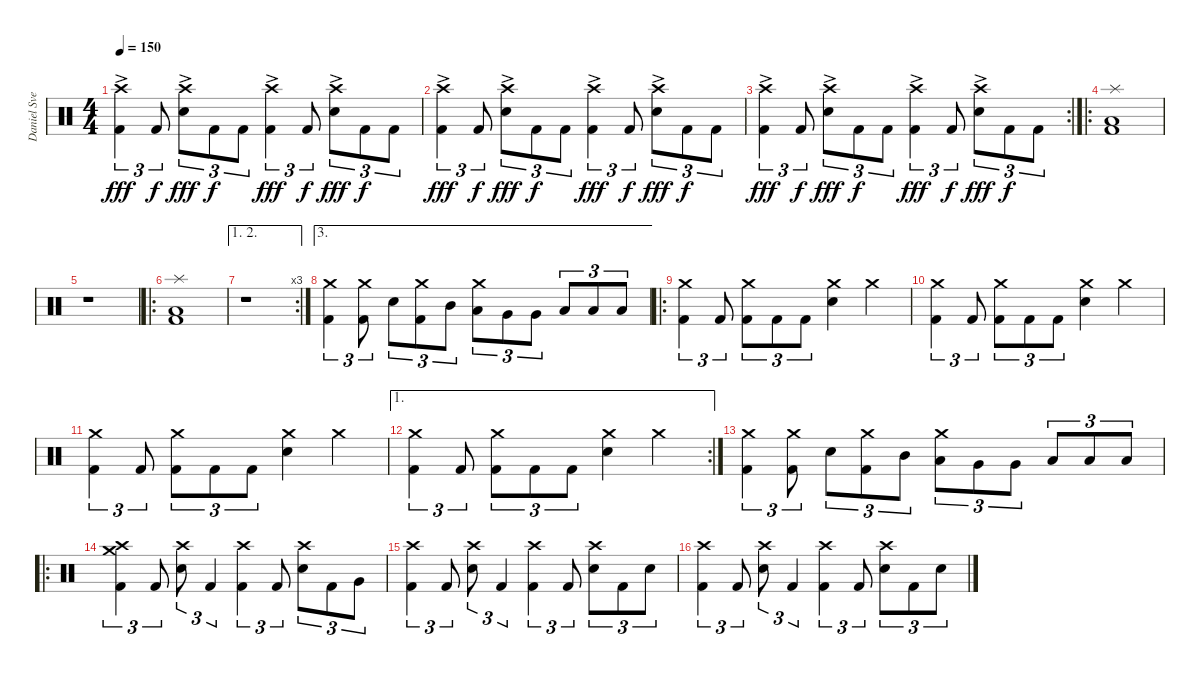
\track ("Daniel Svensson" "Daniel Sve") {instrument percussion}
\staff {score}
\articulation defaults
\ts (4 4)
\tempo 150
\clef neutral
\ks c
("Crash high (hit)"{ac} "Kick (hit) 2").4{tu (3 2) dy fff} "Kick (hit) 2".8{tu (3 2) dy f} ("Crash high (hit)"{ac} "Electric Snare (hit)").8{tu (3 2) dy fff} "Kick (hit) 2".8{tu (3 2) dy f} "Kick (hit) 2".8{tu (3 2)} ("Crash high (hit)"{ac} "Kick (hit) 2").4{tu (3 2) dy fff} "Kick (hit) 2".8{tu (3 2) dy f} ("Electric Snare (hit)" "Crash high (hit)"{ac}).8{tu (3 2) dy fff} "Kick (hit) 2".8{tu (3 2) dy f} "Kick (hit) 2".8{tu (3 2)} |
("Crash high (hit)"{ac} "Kick (hit) 2").4{tu (3 2) dy fff} "Kick (hit) 2".8{tu (3 2) dy f} ("Crash high (hit)"{ac} "Electric Snare (hit)").8{tu (3 2) dy fff} "Kick (hit) 2".8{tu (3 2) dy f} "Kick (hit) 2".8{tu (3 2)} ("Crash high (hit)"{ac} "Kick (hit) 2").4{tu (3 2) dy fff} "Kick (hit) 2".8{tu (3 2) dy f} ("Electric Snare (hit)" "Crash high (hit)"{ac}).8{tu (3 2) dy fff} "Kick (hit) 2".8{tu (3 2) dy f} "Kick (hit) 2".8{tu (3 2)} |
\rc 2
("Crash high (hit)"{ac} "Kick (hit) 2").4{tu (3 2) dy fff} "Kick (hit) 2".8{tu (3 2) dy f} ("Crash high (hit)"{ac} "Electric Snare (hit)").8{tu (3 2) dy fff} "Kick (hit) 2".8{tu (3 2) dy f} "Kick (hit) 2".8{tu (3 2)} ("Crash high (hit)"{ac} "Kick (hit) 2").4{tu (3 2) dy fff} "Kick (hit) 2".8{tu (3 2) dy f} ("Electric Snare (hit)" "Crash high (hit)"{ac}).8{tu (3 2) dy fff} "Kick (hit) 2".8{tu (3 2) dy f} "Kick (hit) 2".8{tu (3 2)} |
\ro
("Splash (hit)" "Kick (hit) 2" "Low Floor Tom (hit)").1 |
r.1 |
\ro
("Splash (hit)" "Kick (hit) 2" "Low Floor Tom (hit)").1 |
\ae (1 2)
\rc 3
r.1 |
\ae 3
("Crash medium (hit)" "Kick (hit) 2").4{tu (3 2)} ("Crash medium (hit)" "Kick (hit) 2").8{tu (3 2)} "Electric Snare (hit)".8{tu (3 2)} ("Crash medium (hit)" "Kick (hit) 2").8{tu (3 2)} "Mid Tom (hit)".8{tu (3 2)} ("Crash medium (hit)" "Low Tom (hit)").8{tu (3 2)} "Very Low Tom (hit)".8{tu (3 2)} "Very Low Tom (hit)".8{tu (3 2)} "Low Floor Tom (hit)".8{tu (3 2)} "Low Floor Tom (hit)".8{tu (3 2)} "Low Floor Tom (hit)".8{tu (3 2)} |
\ro
("Crash medium (hit)" "Kick (hit) 2").4{tu (3 2)} "Kick (hit) 2".8{tu (3 2)} ("Crash medium (hit)" "Kick (hit) 2").8{tu (3 2)} "Kick (hit) 2".8{tu (3 2)} "Kick (hit) 2".8{tu (3 2)} ("Crash medium (hit)" "Electric Snare (hit)").4 "Crash medium (hit)".4 |
("Crash medium (hit)" "Kick (hit) 2").4{tu (3 2)} "Kick (hit) 2".8{tu (3 2)} ("Crash medium (hit)" "Kick (hit) 2").8{tu (3 2)} "Kick (hit) 2".8{tu (3 2)} "Kick (hit) 2".8{tu (3 2)} ("Crash medium (hit)" "Electric Snare (hit)").4 "Crash medium (hit)".4 |
("Crash medium (hit)" "Kick (hit) 2").4{tu (3 2)} "Kick (hit) 2".8{tu (3 2)} ("Crash medium (hit)" "Kick (hit) 2").8{tu (3 2)} "Kick (hit) 2".8{tu (3 2)} "Kick (hit) 2".8{tu (3 2)} ("Crash medium (hit)" "Electric Snare (hit)").4 "Crash medium (hit)".4 |
\ae 1
\rc 2
("Crash medium (hit)" "Kick (hit) 2").4{tu (3 2)} "Kick (hit) 2".8{tu (3 2)} ("Crash medium (hit)" "Kick (hit) 2").8{tu (3 2)} "Kick (hit) 2".8{tu (3 2)} "Kick (hit) 2".8{tu (3 2)} ("Crash medium (hit)" "Electric Snare (hit)").4 "Crash medium (hit)".4 |
("Crash medium (hit)" "Kick (hit) 2").4{tu (3 2)} ("Crash medium (hit)" "Kick (hit) 2").8{tu (3 2)} "Electric Snare (hit)".8{tu (3 2)} ("Crash medium (hit)" "Kick (hit) 2").8{tu (3 2)} "Mid Tom (hit)".8{tu (3 2)} ("Crash medium (hit)" "Low Tom (hit)").8{tu (3 2)} "Very Low Tom (hit)".8{tu (3 2)} "Very Low Tom (hit)".8{tu (3 2)} "Low Floor Tom (hit)".8{tu (3 2)} "Low Floor Tom (hit)".8{tu (3 2)} "Low Floor Tom (hit)".8{tu (3 2)} |
\ro
("Crash medium (hit)" "Crash high (hit)" "Kick (hit) 2").4{tu (3 2)} "Kick (hit) 2".8{tu (3 2)} ("Crash high (hit)" "Electric Snare (hit)").8{tu (3 2)} "Kick (hit) 2".4{tu (3 2)} ("Crash high (hit)" "Kick (hit) 2").4{tu (3 2)} "Kick (hit) 2".8{tu (3 2)} ("Electric Snare (hit)" "Crash high (hit)").8{tu (3 2)} "Kick (hit) 2".8{tu (3 2)} "Very Low Tom (hit)".8{tu (3 2)} |
("Crash high (hit)" "Kick (hit) 2").4{tu (3 2)} "Kick (hit) 2".8{tu (3 2)} ("Crash high (hit)" "Electric Snare (hit)").8{tu (3 2)} "Kick (hit) 2".4{tu (3 2)} ("Crash high (hit)" "Kick (hit) 2").4{tu (3 2)} "Kick (hit) 2".8{tu (3 2)} ("Electric Snare (hit)" "Crash high (hit)").8{tu (3 2)} "Kick (hit) 2".8{tu (3 2)} "Electric Snare (hit)".8{tu (3 2)} |
("Crash high (hit)" "Kick (hit) 2").4{tu (3 2)} "Kick (hit) 2".8{tu (3 2)} ("Crash high (hit)" "Electric Snare (hit)").8{tu (3 2)} "Kick (hit) 2".4{tu (3 2)} ("Crash high (hit)" "Kick (hit) 2").4{tu (3 2)} "Kick (hit) 2".8{tu (3 2)} ("Electric Snare (hit)" "Crash high (hit)").8{tu (3 2)} "Kick (hit) 2".8{tu (3 2)} "Electric Snare (hit)".8{tu (3 2)}
